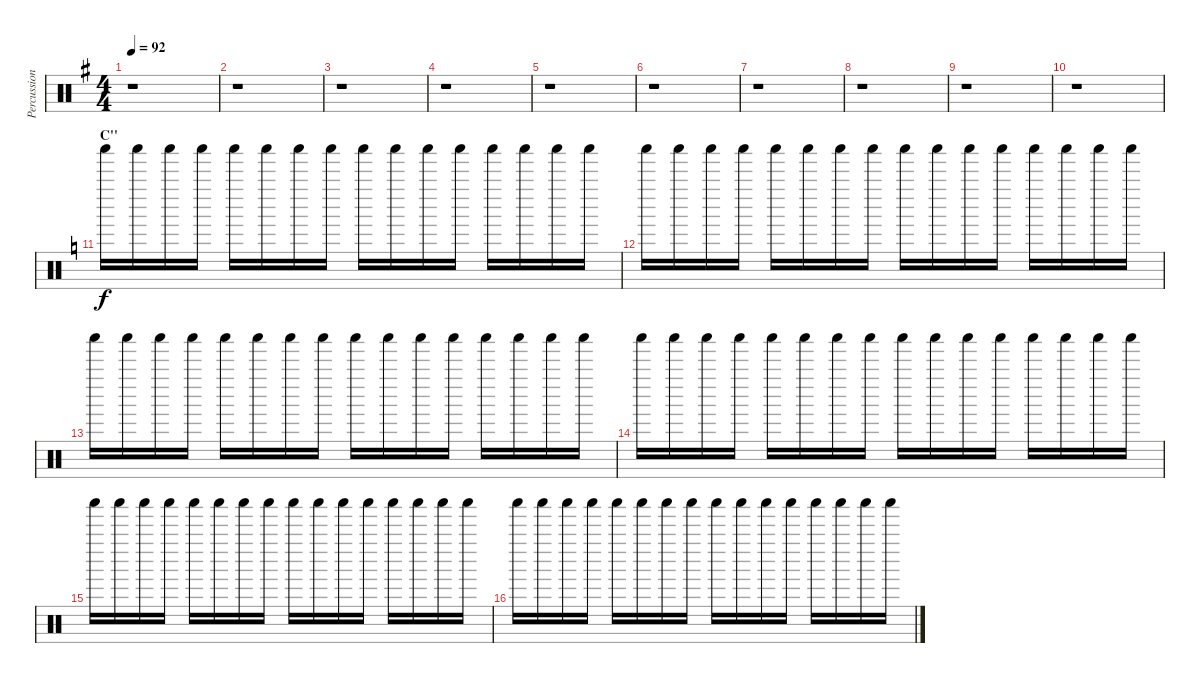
\track ("Percussions" "Percussion") {instrument percussion}
\staff {score}
\articulation defaults
\ts (4 4)
\tempo 92
\clef neutral
\ks g
r.1{dy f} |
r.1 |
r.1 |
r.1 |
r.1 |
r.1 |
r.1 |
r.1 |
r.1 |
r.1 |
\section ("" "C''")
\ks c "Shaker (hit)".16 "Shaker (hit)".16 "Shaker (hit)".16 "Shaker (hit)".16 "Shaker (hit)".16 "Shaker (hit)".16 "Shaker (hit)".16 "Shaker (hit)".16 "Shaker (hit)".16 "Shaker (hit)".16 "Shaker (hit)".16 "Shaker (hit)".16 "Shaker (hit)".16 "Shaker (hit)".16 "Shaker (hit)".16 "Shaker (hit)".16
|
"Shaker (hit)".16 "Shaker (hit)".16 "Shaker (hit)".16 "Shaker (hit)".16 "Shaker (hit)".16 "Shaker (hit)".16 "Shaker (hit)".16 "Shaker (hit)".16 "Shaker (hit)".16 "Shaker (hit)".16 "Shaker (hit)".16 "Shaker (hit)".16 "Shaker (hit)".16 "Shaker (hit)".16 "Shaker (hit)".16 "Shaker (hit)".16 |
"Shaker (hit)".16 "Shaker (hit)".16 "Shaker (hit)".16 "Shaker (hit)".16 "Shaker (hit)".16 "Shaker (hit)".16 "Shaker (hit)".16 "Shaker (hit)".16 "Shaker (hit)".16 "Shaker (hit)".16 "Shaker (hit)".16 "Shaker (hit)".16 "Shaker (hit)".16 "Shaker (hit)".16 "Shaker (hit)".16 "Shaker (hit)".16 |
"Shaker (hit)".16 "Shaker (hit)".16 "Shaker (hit)".16 "Shaker (hit)".16 "Shaker (hit)".16 "Shaker (hit)".16 "Shaker (hit)".16 "Shaker (hit)".16 "Shaker (hit)".16 "Shaker (hit)".16 "Shaker (hit)".16 "Shaker (hit)".16 "Shaker (hit)".16 "Shaker (hit)".16 "Shaker (hit)".16 "Shaker (hit)".16 |
"Shaker (hit)".16 "Shaker (hit)".16 "Shaker (hit)".16 "Shaker (hit)".16 "Shaker (hit)".16 "Shaker (hit)".16 "Shaker (hit)".16 "Shaker (hit)".16 "Shaker (hit)".16 "Shaker (hit)".16 "Shaker (hit)".16 "Shaker (hit)".16 "Shaker (hit)".16 "Shaker (hit)".16 "Shaker (hit)".16 "Shaker (hit)".16 |
"Shaker (hit)".16 "Shaker (hit)".16 "Shaker (hit)".16 "Shaker (hit)".16 "Shaker (hit)".16 "Shaker (hit)".16 "Shaker (hit)".16 "Shaker (hit)".16 "Shaker (hit)".16 "Shaker (hit)".16 "Shaker (hit)".16 "Shaker (hit)".16 "Shaker (hit)".16 "Shaker (hit)".16 "Shaker (hit)".16 "Shaker (hit)".16
